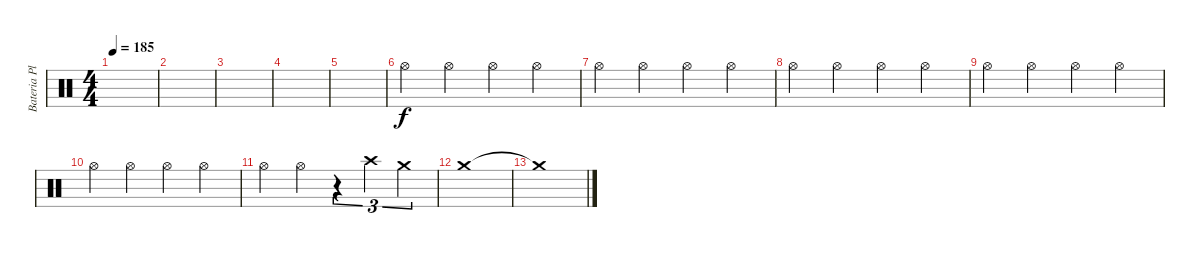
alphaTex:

\track ("Bateria Platos" "Bateria Pl") {instrument percussion}
\staff {score}
\articulation defaults
\ts (4 4)
\tempo 185
\clef neutral
\ks c
|
|
|
|
|
"Hi-Hat (open)".4 "Hi-Hat (open)".4 "Hi-Hat (open)".4 "Hi-Hat (open)".4 |
"Hi-Hat (open)".4 "Hi-Hat (open)".4 "Hi-Hat (open)".4 "Hi-Hat (open)".4 |
"Hi-Hat (open)".4 "Hi-Hat (open)".4 "Hi-Hat (open)".4 "Hi-Hat (open)".4 |
"Hi-Hat (open)".4 "Hi-Hat (open)".4 "Hi-Hat (open)".4 "Hi-Hat (open)".4 |
"Hi-Hat (open)".4 "Hi-Hat (open)".4 "Hi-Hat (open)".4 "Hi-Hat (open)".4 |
"Hi-Hat (open)".4 "Hi-Hat (open)".4 r.4{tu (3 2)} "Crash high (hit)".4{tu (3 2)} "Crash medium (hit)".4{tu (3 2)} |
"Crash medium (hit)".1 |
"Crash medium (hit)"{t}.1{volume 16}
